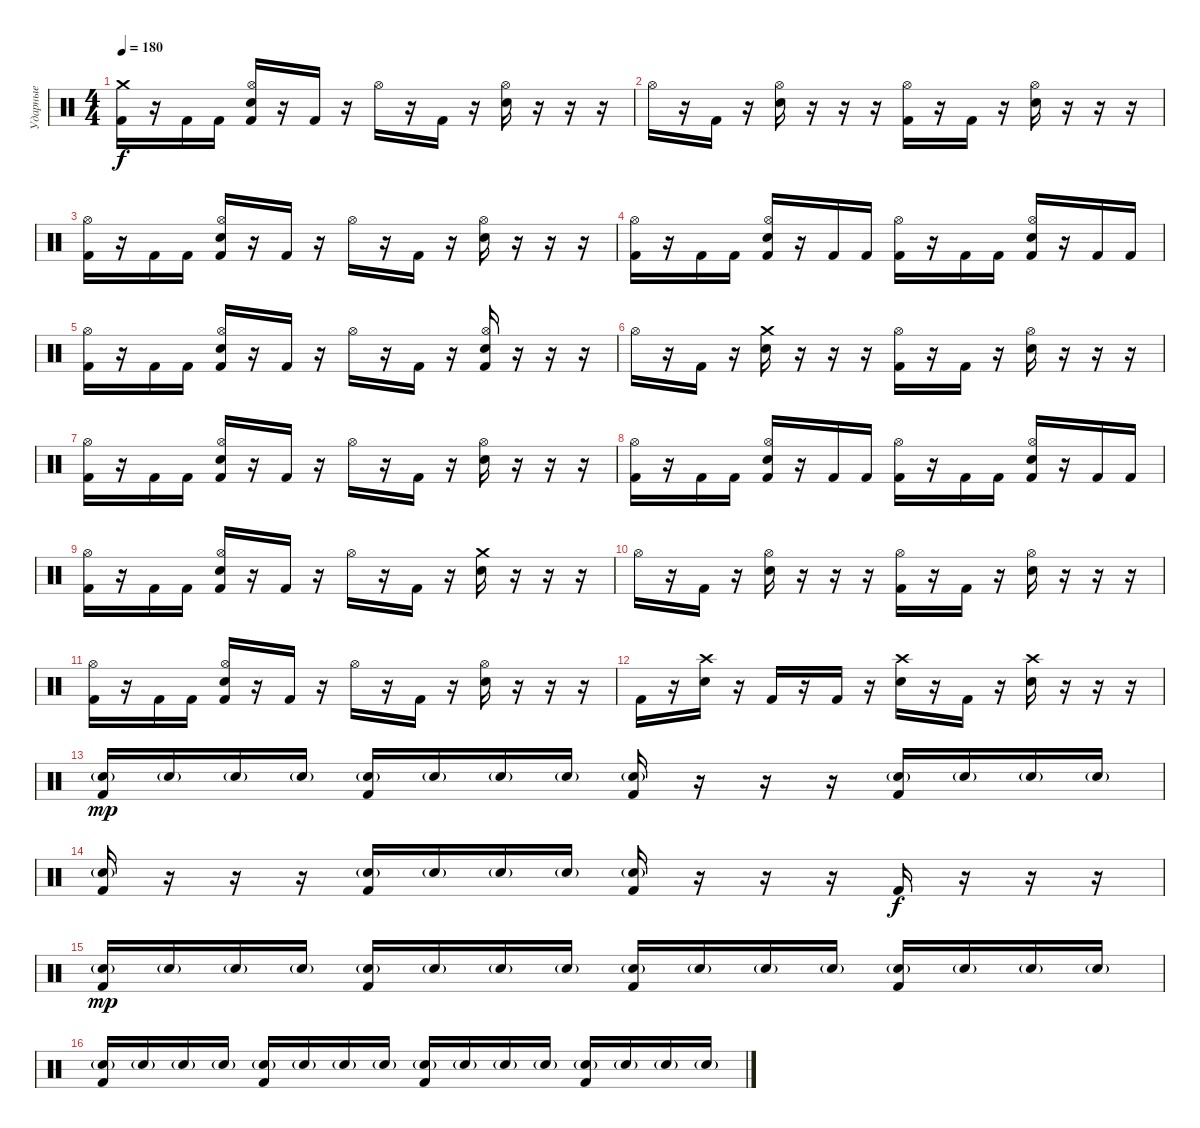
\track ("Ударные" "Ударные") {instrument percussion}
\staff {score}
\articulation defaults
\ts (4 4)
\tempo 180
\clef neutral
\ks c
("Crash medium (hit)" "Kick (hit) 2").16{dy f} r.16 "Kick (hit) 2".16 "Kick (hit) 2".16 ("Hi-Hat (open)" "Electric Snare (hit)" "Kick (hit) 2").16 r.16 "Kick (hit) 2".16 r.16 "Hi-Hat (open)".16 r.16 "Kick (hit) 2".16 r.16 ("Hi-Hat (open)" "Electric Snare (hit)").16 r.16 r.16 r.16 |
"Hi-Hat (open)".16 r.16 "Kick (hit) 2".16 r.16 ("Hi-Hat (open)" "Electric Snare (hit)").16 r.16 r.16 r.16 ("Hi-Hat (open)" "Kick (hit) 2").16 r.16 "Kick (hit) 2".16 r.16 ("Hi-Hat (open)" "Electric Snare (hit)").16 r.16 r.16 r.16 |
("Hi-Hat (open)" "Kick (hit) 2").16 r.16 "Kick (hit) 2".16 "Kick (hit) 2".16 ("Hi-Hat (open)" "Electric Snare (hit)" "Kick (hit) 2").16 r.16 "Kick (hit) 2".16 r.16 "Hi-Hat (open)".16 r.16 "Kick (hit) 2".16 r.16 ("Hi-Hat (open)" "Electric Snare (hit)").16 r.16 r.16 r.16 |
("Hi-Hat (open)" "Kick (hit) 2").16 r.16 "Kick (hit) 2".16 "Kick (hit) 2".16 ("Hi-Hat (open)" "Electric Snare (hit)" "Kick (hit) 2").16 r.16 "Kick (hit) 2".16 "Kick (hit) 2".16 ("Hi-Hat (open)" "Kick (hit) 2").16 r.16 "Kick (hit) 2".16 "Kick (hit) 2".16 ("Hi-Hat (open)" "Electric Snare (hit)" "Kick (hit) 2").16 r.16 "Kick (hit) 2".16 "Kick (hit) 2".16 |
("Hi-Hat (open)" "Kick (hit) 2").16 r.16 "Kick (hit) 2".16 "Kick (hit) 2".16 ("Hi-Hat (open)" "Electric Snare (hit)" "Kick (hit) 2").16 r.16 "Kick (hit) 2".16 r.16 "Hi-Hat (open)".16 r.16 "Kick (hit) 2".16 r.16 ("Hi-Hat (open)" "Electric Snare (hit)" "Kick (hit) 2").16 r.16 r.16 r.16 |
"Hi-Hat (open)".16 r.16 "Kick (hit) 2".16 r.16 ("Crash medium (hit)" "Electric Snare (hit)").16 r.16 r.16 r.16 ("Hi-Hat (open)" "Kick (hit) 2").16 r.16 "Kick (hit) 2".16 r.16 ("Hi-Hat (open)" "Electric Snare (hit)").16 r.16 r.16 r.16 |
("Hi-Hat (open)" "Kick (hit) 2").16 r.16 "Kick (hit) 2".16 "Kick (hit) 2".16 ("Hi-Hat (open)" "Electric Snare (hit)" "Kick (hit) 2").16 r.16 "Kick (hit) 2".16 r.16 "Hi-Hat (open)".16 r.16 "Kick (hit) 2".16 r.16 ("Hi-Hat (open)" "Electric Snare (hit)").16 r.16 r.16 r.16 |
("Hi-Hat (open)" "Kick (hit) 2").16 r.16 "Kick (hit) 2".16 "Kick (hit) 2".16 ("Hi-Hat (open)" "Electric Snare (hit)" "Kick (hit) 2").16 r.16 "Kick (hit) 2".16 "Kick (hit) 2".16 ("Hi-Hat (open)" "Kick (hit) 2").16 r.16 "Kick (hit) 2".16 "Kick (hit) 2".16 ("Hi-Hat (open)" "Electric Snare (hit)" "Kick (hit) 2").16 r.16 "Kick (hit) 2".16 "Kick (hit) 2".16 |
("Hi-Hat (open)" "Kick (hit) 2").16 r.16 "Kick (hit) 2".16 "Kick (hit) 2".16 ("Hi-Hat (open)" "Electric Snare (hit)" "Kick (hit) 2").16 r.16 "Kick (hit) 2".16 r.16 "Hi-Hat (open)".16 r.16 "Kick (hit) 2".16 r.16 ("Crash medium (hit)" "Electric Snare (hit)").16 r.16 r.16 r.16 |
"Hi-Hat (open)".16 r.16 "Kick (hit) 2".16 r.16 ("Hi-Hat (open)" "Electric Snare (hit)").16 r.16 r.16 r.16 ("Hi-Hat (open)" "Kick (hit) 2").16 r.16 "Kick (hit) 2".16 r.16 ("Hi-Hat (open)" "Electric Snare (hit)").16 r.16 r.16 r.16 |
("Hi-Hat (open)" "Kick (hit) 2").16 r.16 "Kick (hit) 2".16 "Kick (hit) 2".16 ("Hi-Hat (open)" "Electric Snare (hit)" "Kick (hit) 2").16 r.16 "Kick (hit) 2".16 r.16 "Hi-Hat (open)".16 r.16 "Kick (hit) 2".16 r.16 ("Hi-Hat (open)" "Electric Snare (hit)").16 r.16 r.16 r.16 |
"Kick (hit) 2".16 r.16 ("Crash high (hit)" "Electric Snare (hit)").16 r.16 "Kick (hit) 2".16 r.16 "Kick (hit) 2".16 r.16 ("Crash high (hit)" "Electric Snare (hit)").16 r.16 "Kick (hit) 2".16 r.16 ("Crash high (hit)" "Electric Snare (hit)").16 r.16 r.16 r.16 |
("Electric Snare (hit)"{g} "Kick (hit) 2").16{dy mp} "Electric Snare (hit)"{g}.16 "Electric Snare (hit)"{g}.16 "Electric Snare (hit)"{g}.16 ("Electric Snare (hit)"{g} "Kick (hit) 2").16 "Electric Snare (hit)"{g}.16 "Electric Snare (hit)"{g}.16 "Electric Snare (hit)"{g}.16 ("Electric Snare (hit)"{g} "Kick (hit) 2").16 r.16 r.16 r.16 ("Electric Snare (hit)"{g} "Kick (hit) 2").16 "Electric Snare (hit)"{g}.16 "Electric Snare (hit)"{g}.16 "Electric Snare (hit)"{g}.16 |
("Electric Snare (hit)"{g} "Kick (hit) 2").16 r.16 r.16 r.16 ("Electric Snare (hit)"{g} "Kick (hit) 2").16 "Electric Snare (hit)"{g}.16 "Electric Snare (hit)"{g}.16 "Electric Snare (hit)"{g}.16 ("Electric Snare (hit)"{g} "Kick (hit) 2").16 r.16 r.16 r.16 "Kick (hit) 2".16{dy f} r.16 r.16 r.16 |
("Electric Snare (hit)"{g} "Kick (hit) 2").16{dy mp} "Electric Snare (hit)"{g}.16 "Electric Snare (hit)"{g}.16 "Electric Snare (hit)"{g}.16 ("Electric Snare (hit)"{g} "Kick (hit) 2").16 "Electric Snare (hit)"{g}.16 "Electric Snare (hit)"{g}.16 "Electric Snare (hit)"{g}.16 ("Electric Snare (hit)"{g} "Kick (hit) 2").16 "Electric Snare (hit)"{g}.16 "Electric Snare (hit)"{g}.16 "Electric Snare (hit)"{g}.16 ("Electric Snare (hit)"{g} "Kick (hit) 2").16 "Electric Snare (hit)"{g}.16 "Electric Snare (hit)"{g}.16 "Electric Snare (hit)"{g}.16 |
("Electric Snare (hit)"{g} "Kick (hit) 2").16 "Electric Snare (hit)"{g}.16 "Electric Snare (hit)"{g}.16 "Electric Snare (hit)"{g}.16 ("Electric Snare (hit)"{g} "Kick (hit) 2").16 "Electric Snare (hit)"{g}.16 "Electric Snare (hit)"{g}.16 "Electric Snare (hit)"{g}.16 ("Electric Snare (hit)"{g} "Kick (hit) 2").16 "Electric Snare (hit)"{g}.16 "Electric Snare (hit)"{g}.16 "Electric Snare (hit)"{g}.16 ("Electric Snare (hit)"{g} "Kick (hit) 2").16 "Electric Snare (hit)"{g}.16 "Electric Snare (hit)"{g}.16 "Electric Snare (hit)"{g}.16
